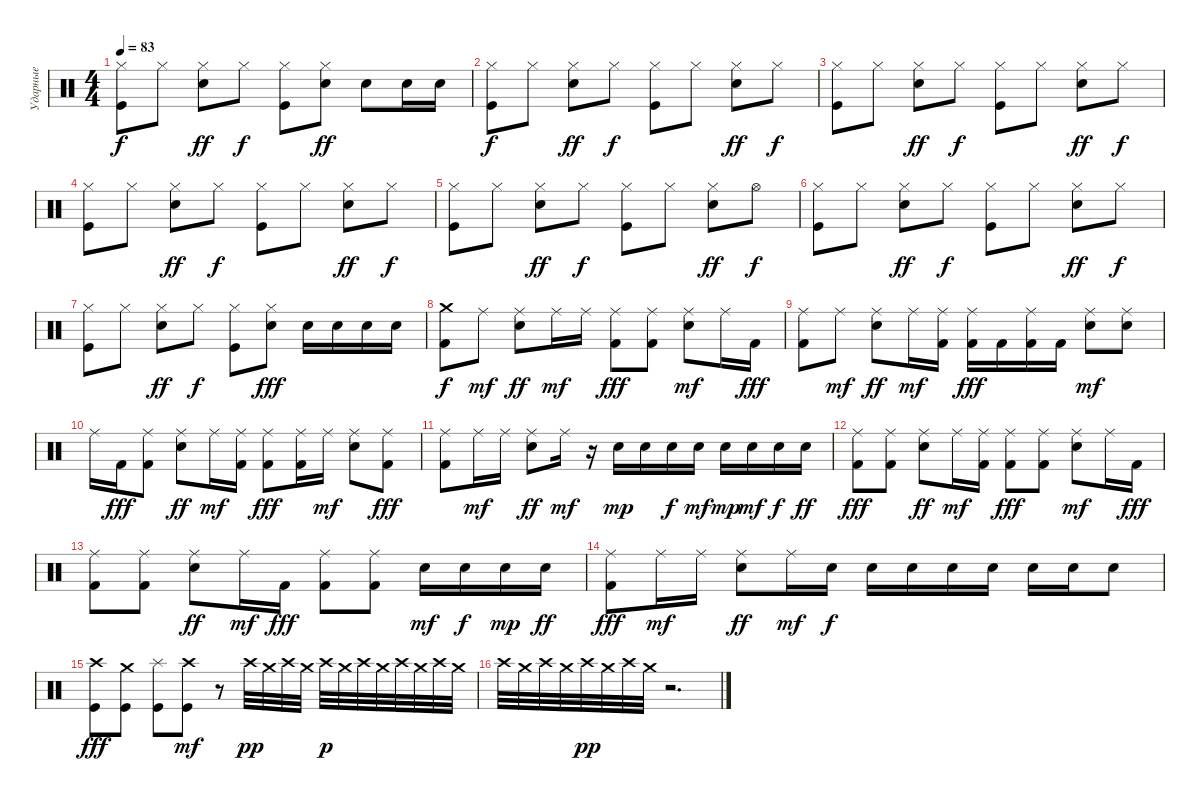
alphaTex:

\track ("Ударные" "Ударные") {instrument percussion}
\staff {score}
\articulation defaults
\ts (4 4)
\tempo 83
\clef neutral
\ks c
("Hi-Hat (closed)" "Kick (hit)").8{dy f} "Hi-Hat (closed)".8 ("Hi-Hat (closed)" "Electric Snare (hit)").8{dy ff} "Hi-Hat (closed)".8{dy f} ("Hi-Hat (closed)" "Kick (hit)").8 ("Hi-Hat (closed)" "Electric Snare (hit)").8{dy ff} "Electric Snare (hit)".8 "Electric Snare (hit)".16 "Electric Snare (hit)".16 |
("Hi-Hat (closed)" "Kick (hit)").8{dy f} "Hi-Hat (closed)".8 ("Hi-Hat (closed)" "Electric Snare (hit)").8{dy ff} "Hi-Hat (closed)".8{dy f} ("Hi-Hat (closed)" "Kick (hit)").8 "Hi-Hat (closed)".8 ("Hi-Hat (closed)" "Electric Snare (hit)").8{dy ff} "Hi-Hat (closed)".8{dy f} |
("Hi-Hat (closed)" "Kick (hit)").8 "Hi-Hat (closed)".8 ("Hi-Hat (closed)" "Electric Snare (hit)").8{dy ff} "Hi-Hat (closed)".8{dy f} ("Hi-Hat (closed)" "Kick (hit)").8 "Hi-Hat (closed)".8 ("Hi-Hat (closed)" "Electric Snare (hit)").8{dy ff} "Hi-Hat (closed)".8{dy f} |
("Hi-Hat (closed)" "Kick (hit)").8 "Hi-Hat (closed)".8 ("Hi-Hat (closed)" "Electric Snare (hit)").8{dy ff} "Hi-Hat (closed)".8{dy f} ("Hi-Hat (closed)" "Kick (hit)").8 "Hi-Hat (closed)".8 ("Hi-Hat (closed)" "Electric Snare (hit)").8{dy ff} "Hi-Hat (closed)".8{dy f} |
("Hi-Hat (closed)" "Kick (hit)").8 "Hi-Hat (closed)".8 ("Hi-Hat (closed)" "Electric Snare (hit)").8{dy ff} "Hi-Hat (closed)".8{dy f} ("Hi-Hat (closed)" "Kick (hit)").8 "Hi-Hat (closed)".8 ("Hi-Hat (closed)" "Electric Snare (hit)").8{dy ff} "Hi-Hat (open)".8{dy f} |
("Hi-Hat (closed)" "Kick (hit)").8 "Hi-Hat (closed)".8 ("Hi-Hat (closed)" "Electric Snare (hit)").8{dy ff} "Hi-Hat (closed)".8{dy f} ("Hi-Hat (closed)" "Kick (hit)").8 "Hi-Hat (closed)".8 ("Hi-Hat (closed)" "Electric Snare (hit)").8{dy ff} "Hi-Hat (closed)".8{dy f} |
("Hi-Hat (closed)" "Kick (hit)").8 "Hi-Hat (closed)".8 ("Hi-Hat (closed)" "Electric Snare (hit)").8{dy ff} "Hi-Hat (closed)".8{dy f} ("Hi-Hat (closed)" "Kick (hit)").8 ("Hi-Hat (closed)" "Electric Snare (hit)").8{dy fff} "Electric Snare (hit)".16 "Electric Snare (hit)".16 "Electric Snare (hit)".16 "Electric Snare (hit)".16 |
("Crash medium (hit)" "Kick (hit) 2").8{dy f} "Ride (middle)".8{dy mf} ("Ride (middle)" "Electric Snare (hit)").8{dy ff} "Ride (middle)".16{dy mf} "Ride (middle)".16 ("Ride (middle)" "Kick (hit) 2").8{dy fff} ("Ride (middle)" "Kick (hit) 2").8 ("Electric Snare (hit)" "Ride (middle)").8{dy mf} "Ride (middle)".16 "Kick (hit) 2".16{dy fff} |
("Ride (middle)" "Kick (hit) 2").8 "Ride (middle)".8{dy mf} ("Ride (middle)" "Electric Snare (hit)").8{dy ff} "Ride (middle)".16{dy mf} ("Kick (hit) 2" "Ride (middle)").16 ("Ride (middle)" "Kick (hit) 2").16{dy fff} "Kick (hit) 2".16 ("Ride (middle)" "Kick (hit) 2").16 "Kick (hit) 2".16 ("Electric Snare (hit)" "Ride (middle)").8{dy mf} ("Ride (middle)" "Electric Snare (hit)").8 |
"Ride (middle)".16 "Kick (hit) 2".16{dy fff} ("Ride (middle)" "Kick (hit) 2").8 ("Ride (middle)" "Electric Snare (hit)").8{dy ff} "Ride (middle)".16{dy mf} ("Kick (hit) 2" "Ride (middle)").16 ("Ride (middle)" "Kick (hit) 2").8{dy fff} ("Ride (middle)" "Kick (hit) 2").16 "Ride (middle)".16{dy mf} ("Electric Snare (hit)" "Ride (middle)").8 ("Ride (middle)" "Kick (hit) 2").8{dy fff} |
("Ride (middle)" "Kick (hit) 2").8 "Ride (middle)".16{dy mf} "Ride (middle)".16 ("Ride (middle)" "Electric Snare (hit)").8{dy ff} "Ride (middle)".16{dy mf} r.16 "Electric Snare (hit)".16{dy mp} "Electric Snare (hit)".16 "Electric Snare (hit)".16{dy f} "Electric Snare (hit)".16{dy mf} "Electric Snare (hit)".16{dy mp} "Electric Snare (hit)".16{dy mf} "Electric Snare (hit)".16{dy f} "Electric Snare (hit)".16{dy ff} |
("Ride (middle)" "Kick (hit) 2").8{dy fff} ("Ride (middle)" "Kick (hit) 2").8 ("Ride (middle)" "Electric Snare (hit)").8{dy ff} "Ride (middle)".16{dy mf} ("Kick (hit) 2" "Ride (middle)").16 ("Ride (middle)" "Kick (hit) 2").8{dy fff} ("Ride (middle)" "Kick (hit) 2").8 ("Electric Snare (hit)" "Ride (middle)").8{dy mf} "Ride (middle)".16 "Kick (hit) 2".16{dy fff} |
("Ride (middle)" "Kick (hit) 2").8 ("Ride (middle)" "Kick (hit) 2").8 ("Ride (middle)" "Electric Snare (hit)").8{dy ff} "Ride (middle)".16{dy mf} "Kick (hit) 2".16{dy fff} ("Ride (middle)" "Kick (hit) 2").8 ("Ride (middle)" "Kick (hit) 2").8 "Electric Snare (hit)".16{dy mf} "Electric Snare (hit)".16{dy f} "Electric Snare (hit)".16{dy mp} "Electric Snare (hit)".16{dy ff} |
("Ride (middle)" "Kick (hit) 2").8{dy fff} "Ride (middle)".16{dy mf} "Ride (middle)".16 ("Ride (middle)" "Electric Snare (hit)").8{dy ff} "Ride (middle)".16{dy mf} "Electric Snare (hit)".16{dy f} "Electric Snare (hit)".16 "Electric Snare (hit)".16 "Electric Snare (hit)".16 "Electric Snare (hit)".16 "Electric Snare (hit)".16 "Electric Snare (hit)".16 "Electric Snare (hit)".8 |
("Crash high (hit)" "Kick (hit)").8{dy fff} ("Crash medium (hit)" "Kick (hit)").8 ("Splash (hit)" "Kick (hit)").8 ("Kick (hit)" "Crash high (hit)").8{dy mf} r.8 "Crash high (hit)".32{dy pp} "Crash medium (hit)".32 "Crash high (hit)".32 "Crash medium (hit)".32 "Crash high (hit)".32{dy p} "Crash medium (hit)".32 "Crash high (hit)".32 "Crash medium (hit)".32 "Crash high (hit)".32 "Crash medium (hit)".32 "Crash high (hit)".32 "Crash medium (hit)".32 |
"Crash high (hit)".32 "Crash medium (hit)".32 "Crash high (hit)".32 "Crash medium (hit)".32 "Crash high (hit)".32{dy pp} "Crash medium (hit)".32 "Crash high (hit)".32 "Crash medium (hit)".32 r.2{d}
